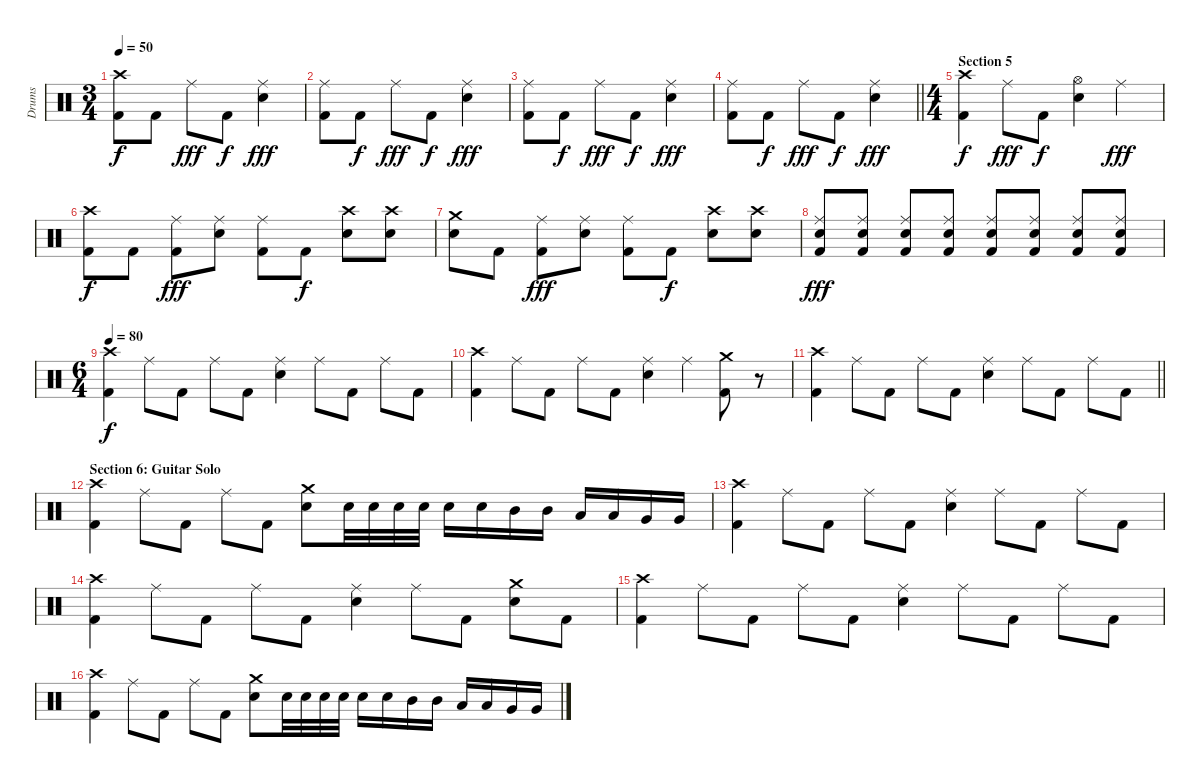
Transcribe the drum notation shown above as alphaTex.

\track ("Drums" "Drums") {instrument percussion}
\staff {score}
\articulation defaults
\ts (3 4)
\tempo 50
\clef neutral
\ks c
("Crash high (hit)" "Kick (hit) 2").8{dy f} "Kick (hit) 2".8 "Ride (middle)".8{dy fff} "Kick (hit) 2".8{dy f} ("Ride (middle)" "Electric Snare (hit)").4{dy fff} |
("Ride (middle)" "Kick (hit) 2").8 "Kick (hit) 2".8{dy f} "Ride (middle)".8{dy fff} "Kick (hit) 2".8{dy f} ("Ride (middle)" "Electric Snare (hit)").4{dy fff} |
("Ride (middle)" "Kick (hit) 2").8 "Kick (hit) 2".8{dy f} "Ride (middle)".8{dy fff} "Kick (hit) 2".8{dy f} ("Ride (middle)" "Electric Snare (hit)").4{dy fff} |
\barLineRight lightlight
("Ride (middle)" "Kick (hit) 2").8 "Kick (hit) 2".8{dy f} "Ride (middle)".8{dy fff} "Kick (hit) 2".8{dy f} ("Ride (middle)" "Electric Snare (hit)").4{dy fff} |
\ts (4 4)
\section ("" "Section 5")
("Crash high (hit)" "Kick (hit) 2").4{dy f} "Ride (middle)".8{dy fff} "Kick (hit) 2".8{dy f} ("Hi-Hat (open)" "Electric Snare (hit)").4 "Ride (middle)".4{dy fff} |
("Crash high (hit)" "Kick (hit) 2").8{dy f} "Kick (hit) 2".8 ("Ride (middle)" "Kick (hit) 2").8{dy fff} ("Ride (middle)" "Electric Snare (hit)").8 ("Ride (middle)" "Kick (hit) 2").8 "Kick (hit) 2".8{dy f} ("Crash high (hit)" "Electric Snare (hit)").8 ("Crash high (hit)" "Electric Snare (hit)").8 |
("Crash medium (hit)" "Electric Snare (hit)").8 "Kick (hit) 2".8 ("Ride (middle)" "Kick (hit) 2").8{dy fff} ("Ride (middle)" "Electric Snare (hit)").8 ("Ride (middle)" "Kick (hit) 2").8 "Kick (hit) 2".8{dy f} ("Crash high (hit)" "Electric Snare (hit)").8 ("Crash high (hit)" "Electric Snare (hit)").8 |
("Ride (middle)" "Electric Snare (hit)" "Kick (hit) 2").8{dy fff} ("Ride (middle)" "Electric Snare (hit)" "Kick (hit) 2").8 ("Ride (middle)" "Electric Snare (hit)" "Kick (hit) 2").8 ("Ride (middle)" "Electric Snare (hit)" "Kick (hit) 2").8 ("Ride (middle)" "Electric Snare (hit)" "Kick (hit) 2").8 ("Ride (middle)" "Electric Snare (hit)" "Kick (hit) 2").8 ("Ride (middle)" "Electric Snare (hit)" "Kick (hit) 2").8 ("Ride (middle)" "Electric Snare (hit)" "Kick (hit) 2").8 |
\ts (6 4)
\tempo 80
("Crash high (hit)" "Kick (hit) 2").4{dy f} "Ride (middle)".8 "Kick (hit) 2".8 "Ride (middle)".8 "Kick (hit) 2".8 ("Ride (middle)" "Electric Snare (hit)").4 "Ride (middle)".8 "Kick (hit) 2".8 "Ride (middle)".8 "Kick (hit) 2".8 |
("Crash high (hit)" "Kick (hit) 2").4 "Ride (middle)".8 "Kick (hit) 2".8 "Ride (middle)".8 "Kick (hit) 2".8 ("Ride (middle)" "Electric Snare (hit)").4 "Ride (middle)".4 ("Crash medium (hit)" "Kick (hit) 2").8 r.8 |
\barLineRight lightlight
("Crash high (hit)" "Kick (hit) 2").4 "Ride (middle)".8 "Kick (hit) 2".8 "Ride (middle)".8 "Kick (hit) 2".8 ("Ride (middle)" "Electric Snare (hit)").4 "Ride (middle)".8 "Kick (hit) 2".8 "Ride (middle)".8 "Kick (hit) 2".8 |
\section ("" "Section 6: Guitar Solo")
("Crash high (hit)" "Kick (hit) 2").4 "Ride (middle)".8 "Kick (hit) 2".8 "Ride (middle)".8 "Kick (hit) 2".8 ("Crash medium (hit)" "Electric Snare (hit)").8 "Electric Snare (hit)".32 "Electric Snare (hit)".32 "Electric Snare (hit)".32 "Electric Snare (hit)".32 "Electric Snare (hit)".16 "Electric Snare (hit)".16 "Mid Tom (hit)".16 "Mid Tom (hit)".16 "Low Tom (hit)".16 "Low Tom (hit)".16 "Very Low Tom (hit)".16 "Very Low Tom (hit)".16 |
("Crash high (hit)" "Kick (hit) 2").4 "Ride (middle)".8 "Kick (hit) 2".8 "Ride (middle)".8 "Kick (hit) 2".8 ("Ride (middle)" "Electric Snare (hit)").4 "Ride (middle)".8 "Kick (hit) 2".8 "Ride (middle)".8 "Kick (hit) 2".8 |
("Crash high (hit)" "Kick (hit) 2").4 "Ride (middle)".8 "Kick (hit) 2".8 "Ride (middle)".8 "Kick (hit) 2".8 ("Ride (middle)" "Electric Snare (hit)").4 "Ride (middle)".8 "Kick (hit) 2".8 ("Crash medium (hit)" "Electric Snare (hit)").8 "Kick (hit) 2".8 |
("Crash high (hit)" "Kick (hit) 2").4 "Ride (middle)".8 "Kick (hit) 2".8 "Ride (middle)".8 "Kick (hit) 2".8 ("Ride (middle)" "Electric Snare (hit)").4 "Ride (middle)".8 "Kick (hit) 2".8 "Ride (middle)".8 "Kick (hit) 2".8 |
("Crash high (hit)" "Kick (hit) 2").4 "Ride (middle)".8 "Kick (hit) 2".8 "Ride (middle)".8 "Kick (hit) 2".8 ("Crash medium (hit)" "Electric Snare (hit)").8 "Electric Snare (hit)".32 "Electric Snare (hit)".32 "Electric Snare (hit)".32 "Electric Snare (hit)".32 "Electric Snare (hit)".16 "Electric Snare (hit)".16 "Mid Tom (hit)".16 "Mid Tom (hit)".16 "Low Tom (hit)".16 "Low Tom (hit)".16 "Very Low Tom (hit)".16 "Very Low Tom (hit)".16
